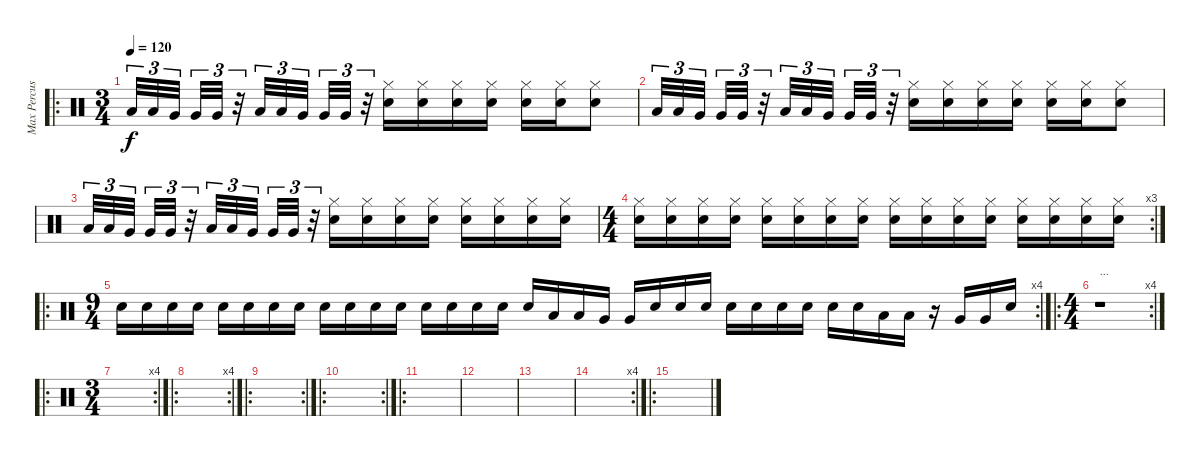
\track ("Max Percussion" "Max Percus") {instrument percussion}
\staff {score}
\articulation defaults
\ro
\ts (3 4)
\tempo 120
\clef neutral
\ks c "Low Tom (hit)".32{tu (3 2) dy f} "Low Tom (hit)".32{tu (3 2)} "Very Low Tom (hit)".32{tu (3 2)} "Very Low Tom (hit)".32{tu (3 2)} "Very Low Tom (hit)".32{tu (3 2)}
r.32{tu (3 2)} "Low Tom (hit)".32{tu (3 2)} "Low Tom (hit)".32{tu (3 2)} "Very Low Tom (hit)".32{tu (3 2)} "Very Low Tom (hit)".32{tu (3 2)} "Very Low Tom (hit)".32{tu (3 2)} r.32{tu (3 2)} ("Hi-Hat (closed)" "Snare (hit) 2").16 ("Hi-Hat (closed)" "Snare (hit) 2").16 ("Hi-Hat (closed)" "Snare (hit) 2").16 ("Hi-Hat (closed)" "Snare (hit) 2").16 ("Hi-Hat (closed)" "Snare (hit) 2").16 ("Hi-Hat (closed)" "Snare (hit) 2").16 ("Hi-Hat (closed)" "Snare (hit) 2").8 |
"Low Tom (hit)".32{tu (3 2)} "Low Tom (hit)".32{tu (3 2)} "Very Low Tom (hit)".32{tu (3 2)} "Very Low Tom (hit)".32{tu (3 2)} "Very Low Tom (hit)".32{tu (3 2)} r.32{tu (3 2)} "Low Tom (hit)".32{tu (3 2)} "Low Tom (hit)".32{tu (3 2)} "Very Low Tom (hit)".32{tu (3 2)} "Very Low Tom (hit)".32{tu (3 2)} "Very Low Tom (hit)".32{tu (3 2)} r.32{tu (3 2)} ("Hi-Hat (closed)" "Snare (hit) 2").16 ("Hi-Hat (closed)" "Snare (hit) 2").16 ("Hi-Hat (closed)" "Snare (hit) 2").16 ("Hi-Hat (closed)" "Snare (hit) 2").16 ("Hi-Hat (closed)" "Snare (hit) 2").16 ("Hi-Hat (closed)" "Snare (hit) 2").16 ("Hi-Hat (closed)" "Snare (hit) 2").8 |
"Low Tom (hit)".32{tu (3 2)} "Low Tom (hit)".32{tu (3 2)} "Very Low Tom (hit)".32{tu (3 2)} "Very Low Tom (hit)".32{tu (3 2)} "Very Low Tom (hit)".32{tu (3 2)} r.32{tu (3 2)} "Low Tom (hit)".32{tu (3 2)} "Low Tom (hit)".32{tu (3 2)} "Very Low Tom (hit)".32{tu (3 2)} "Very Low Tom (hit)".32{tu (3 2)} "Very Low Tom (hit)".32{tu (3 2)} r.32{tu (3 2)} ("Hi-Hat (closed)" "Snare (hit) 2").16 ("Hi-Hat (closed)" "Snare (hit) 2").16 ("Hi-Hat (closed)" "Snare (hit) 2").16 ("Hi-Hat (closed)" "Snare (hit) 2").16 ("Hi-Hat (closed)" "Snare (hit) 2").16 ("Hi-Hat (closed)" "Snare (hit) 2").16 ("Hi-Hat (closed)" "Snare (hit) 2").16 ("Hi-Hat (closed)" "Snare (hit) 2").16 |
\rc 3
\ts (4 4)
("Hi-Hat (closed)" "Snare (hit) 2").16 ("Hi-Hat (closed)" "Snare (hit) 2").16 ("Hi-Hat (closed)" "Snare (hit) 2").16 ("Hi-Hat (closed)" "Snare (hit) 2").16 ("Hi-Hat (closed)" "Snare (hit) 2").16 ("Hi-Hat (closed)" "Snare (hit) 2").16 ("Hi-Hat (closed)" "Snare (hit) 2").16 ("Hi-Hat (closed)" "Snare (hit) 2").16 ("Hi-Hat (closed)" "Snare (hit) 2").16 ("Hi-Hat (closed)" "Snare (hit) 2").16 ("Hi-Hat (closed)" "Snare (hit) 2").16 ("Hi-Hat (closed)" "Snare (hit) 2").16 ("Hi-Hat (closed)" "Snare (hit) 2").16 ("Hi-Hat (closed)" "Snare (hit) 2").16 ("Hi-Hat (closed)" "Snare (hit) 2").16 ("Hi-Hat (closed)" "Snare (hit) 2").16 |
\ro
\rc 4
\ts (9 4)
"Snare (hit) 2".16 "Snare (hit) 2".16 "Snare (hit) 2".16 "Snare (hit) 2".16 "Snare (hit) 2".16 "Snare (hit) 2".16 "Snare (hit) 2".16 "Snare (hit) 2".16 "Snare (hit) 2".16 "Snare (hit) 2".16 "Snare (hit) 2".16 "Snare (hit) 2".16 "Snare (hit) 2".16 "Snare (hit) 2".16 "Snare (hit) 2".16 "Snare (hit) 2".16 "Snare (hit) 2".16 "Low Tom (hit)".16 "Low Tom (hit)".16 "Very Low Tom (hit)".16 "Very Low Tom (hit)".16 "Snare (hit) 2".16 "Snare (hit) 2".16 "Snare (hit) 2".16 "Snare (hit) 2".16 "Snare (hit) 2".16 "Snare (hit) 2".16 "Snare (hit) 2".16 "Snare (hit) 2".16 "Snare (hit) 2".16 "Low Tom (hit)".16 "Low Tom (hit)".16 r.16 "Very Low Tom (hit)".16 "Very Low Tom (hit)".16 "Snare (hit) 2".16 |
\ro
\rc 4
\ts (4 4)
r.1{txt "..."} |
\ro
\rc 4
\ts (3 4)
|
\ro
\rc 4
|
\ro
\rc 2
|
\ro
\rc 2
|
\ro
|
|
|
\rc 4
|
\ro
